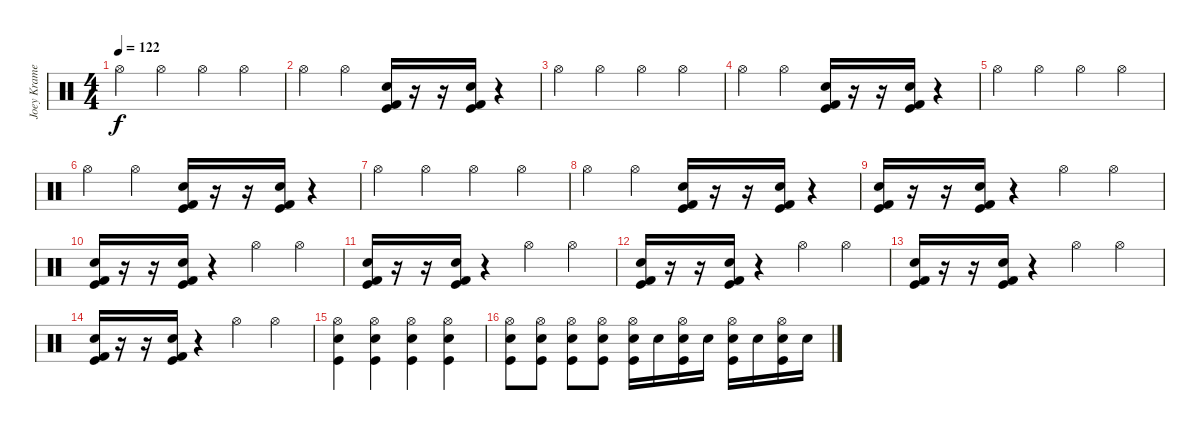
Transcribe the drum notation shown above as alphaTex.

\track ("Joey Kramer" "Joey Krame") {instrument percussion}
\staff {score}
\articulation defaults
\ts (4 4)
\tempo 122
\clef neutral
\ks c "Hi-Hat (open)".4{dy f} "Hi-Hat (open)".4 "Hi-Hat (open)".4 "Hi-Hat (open)".4
|
"Hi-Hat (open)".4 "Hi-Hat (open)".4 ("Kick (hit)" "Snare (hit) 2" "Kick (hit) 2").16 r.16 r.16 ("Kick (hit)" "Snare (hit) 2" "Kick (hit) 2").16 r.4 |
"Hi-Hat (open)".4 "Hi-Hat (open)".4 "Hi-Hat (open)".4 "Hi-Hat (open)".4 |
"Hi-Hat (open)".4 "Hi-Hat (open)".4 ("Kick (hit)" "Snare (hit) 2" "Kick (hit) 2").16 r.16 r.16 ("Kick (hit)" "Snare (hit) 2" "Kick (hit) 2").16 r.4 |
"Hi-Hat (open)".4 "Hi-Hat (open)".4 "Hi-Hat (open)".4 "Hi-Hat (open)".4 |
"Hi-Hat (open)".4 "Hi-Hat (open)".4 ("Kick (hit)" "Snare (hit) 2" "Kick (hit) 2").16 r.16 r.16 ("Kick (hit)" "Snare (hit) 2" "Kick (hit) 2").16 r.4 |
"Hi-Hat (open)".4 "Hi-Hat (open)".4 "Hi-Hat (open)".4 "Hi-Hat (open)".4 |
"Hi-Hat (open)".4 "Hi-Hat (open)".4 ("Kick (hit)" "Snare (hit) 2" "Kick (hit) 2").16 r.16 r.16 ("Kick (hit)" "Snare (hit) 2" "Kick (hit) 2").16 r.4 |
("Kick (hit)" "Snare (hit) 2" "Kick (hit) 2").16 r.16 r.16 ("Kick (hit)" "Snare (hit) 2" "Kick (hit) 2").16 r.4 "Hi-Hat (open)".4 "Hi-Hat (open)".4 |
("Kick (hit)" "Snare (hit) 2" "Kick (hit) 2").16 r.16 r.16 ("Kick (hit)" "Snare (hit) 2" "Kick (hit) 2").16 r.4 "Hi-Hat (open)".4 "Hi-Hat (open)".4 |
("Kick (hit)" "Snare (hit) 2" "Kick (hit) 2").16 r.16 r.16 ("Kick (hit)" "Snare (hit) 2" "Kick (hit) 2").16 r.4 "Hi-Hat (open)".4 "Hi-Hat (open)".4 |
("Kick (hit)" "Snare (hit) 2" "Kick (hit) 2").16 r.16 r.16 ("Kick (hit)" "Snare (hit) 2" "Kick (hit) 2").16 r.4 "Hi-Hat (open)".4 "Hi-Hat (open)".4 |
("Kick (hit)" "Snare (hit) 2" "Kick (hit) 2").16 r.16 r.16 ("Kick (hit)" "Snare (hit) 2" "Kick (hit) 2").16 r.4 "Hi-Hat (open)".4 "Hi-Hat (open)".4 |
("Kick (hit)" "Snare (hit) 2" "Kick (hit) 2").16 r.16 r.16 ("Kick (hit)" "Snare (hit) 2" "Kick (hit) 2").16 r.4 "Hi-Hat (open)".4 "Hi-Hat (open)".4 |
("Kick (hit)" "Snare (hit) 2" "Hi-Hat (open)").4 ("Kick (hit)" "Snare (hit) 2" "Hi-Hat (open)").4 ("Kick (hit)" "Snare (hit) 2" "Hi-Hat (open)").4 ("Kick (hit)" "Snare (hit) 2" "Hi-Hat (open)").4 |
("Kick (hit)" "Snare (hit) 2" "Hi-Hat (open)").8 ("Kick (hit)" "Snare (hit) 2" "Hi-Hat (open)").8 ("Kick (hit)" "Snare (hit) 2" "Hi-Hat (open)").8 ("Kick (hit)" "Snare (hit) 2" "Hi-Hat (open)").8 ("Kick (hit)" "Snare (hit) 2" "Hi-Hat (open)").16 "Snare (hit) 2".16 ("Kick (hit)" "Snare (hit) 2" "Hi-Hat (open)").16 "Snare (hit) 2".16 ("Kick (hit)" "Snare (hit) 2" "Hi-Hat (open)").16 "Snare (hit) 2".16 ("Kick (hit)" "Snare (hit) 2" "Hi-Hat (open)").16 "Snare (hit) 2".16
